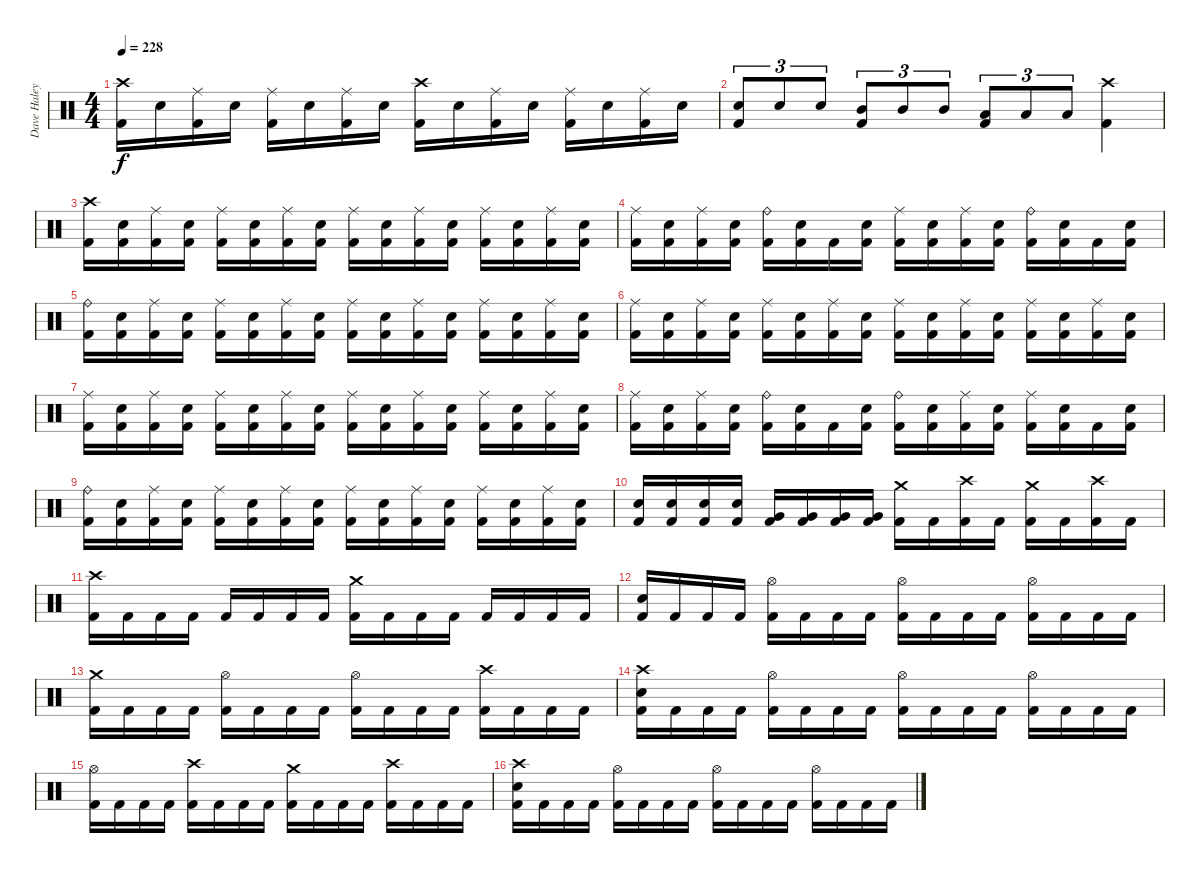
\track ("Dave Haley" "Dave Haley") {instrument percussion}
\staff {score}
\articulation defaults
\ts (4 4)
\tempo 228
\clef neutral
\ks c
("Crash high (hit)" "Kick (hit) 2").16{dy f} "Snare (hit) 2".16 ("Ride (middle)" "Kick (hit) 2").16 "Snare (hit) 2".16 ("Ride (middle)" "Kick (hit) 2").16 "Snare (hit) 2".16 ("Ride (middle)" "Kick (hit) 2").16 "Snare (hit) 2".16 ("Crash high (hit)" "Kick (hit) 2").16 "Snare (hit) 2".16 ("Ride (middle)" "Kick (hit) 2").16 "Snare (hit) 2".16 ("Ride (middle)" "Kick (hit) 2").16 "Snare (hit) 2".16 ("Ride (middle)" "Kick (hit) 2").16 "Snare (hit) 2".16 |
("Snare (hit) 2" "Kick (hit) 2").8{tu (3 2)} "Snare (hit) 2".8{tu (3 2)} "Snare (hit) 2".8{tu (3 2)} ("Mid Tom (hit)" "Kick (hit) 2").8{tu (3 2)} "Mid Tom (hit)".8{tu (3 2)} "Mid Tom (hit)".8{tu (3 2)} ("Low Tom (hit)" "Kick (hit) 2").8{tu (3 2)} "Low Tom (hit)".8{tu (3 2)} "Low Tom (hit)".8{tu (3 2)} ("Crash high (hit)" "Kick (hit) 2").4 |
("Crash high (hit)" "Kick (hit) 2").16 ("Snare (hit) 2" "Kick (hit) 2").16 ("Ride (middle)" "Kick (hit) 2").16 ("Snare (hit) 2" "Kick (hit) 2").16 ("Ride (middle)" "Kick (hit) 2").16 ("Snare (hit) 2" "Kick (hit) 2").16 ("Ride (middle)" "Kick (hit) 2").16 ("Snare (hit) 2" "Kick (hit) 2").16 ("Ride (middle)" "Kick (hit) 2").16 ("Snare (hit) 2" "Kick (hit) 2").16 ("Ride (middle)" "Kick (hit) 2").16 ("Snare (hit) 2" "Kick (hit) 2").16 ("Ride (middle)" "Kick (hit) 2").16 ("Snare (hit) 2" "Kick (hit) 2").16 ("Ride (middle)" "Kick (hit) 2").16 ("Snare (hit) 2" "Kick (hit) 2").16 |
("Ride (middle)" "Kick (hit) 2").16 ("Snare (hit) 2" "Kick (hit) 2").16 ("Ride (middle)" "Kick (hit) 2").16 ("Snare (hit) 2" "Kick (hit) 2").16 ("Ride (bell)" "Kick (hit) 2").16 ("Snare (hit) 2" "Kick (hit) 2").16 "Kick (hit) 2".16 ("Snare (hit) 2" "Kick (hit) 2").16 ("Ride (middle)" "Kick (hit) 2").16 ("Snare (hit) 2" "Kick (hit) 2").16 ("Ride (middle)" "Kick (hit) 2").16 ("Snare (hit) 2" "Kick (hit) 2").16 ("Ride (bell)" "Kick (hit) 2").16 ("Snare (hit) 2" "Kick (hit) 2").16 "Kick (hit) 2".16 ("Snare (hit) 2" "Kick (hit) 2").16 |
("Ride (bell)" "Kick (hit) 2").16 ("Snare (hit) 2" "Kick (hit) 2").16 ("Ride (middle)" "Kick (hit) 2").16 ("Snare (hit) 2" "Kick (hit) 2").16 ("Ride (middle)" "Kick (hit) 2").16 ("Snare (hit) 2" "Kick (hit) 2").16 ("Ride (middle)" "Kick (hit) 2").16 ("Snare (hit) 2" "Kick (hit) 2").16 ("Ride (middle)" "Kick (hit) 2").16 ("Snare (hit) 2" "Kick (hit) 2").16 ("Ride (middle)" "Kick (hit) 2").16 ("Snare (hit) 2" "Kick (hit) 2").16 ("Ride (middle)" "Kick (hit) 2").16 ("Snare (hit) 2" "Kick (hit) 2").16 ("Ride (middle)" "Kick (hit) 2").16 ("Snare (hit) 2" "Kick (hit) 2").16 |
("Ride (middle)" "Kick (hit) 2").16 ("Snare (hit) 2" "Kick (hit) 2").16 ("Ride (middle)" "Kick (hit) 2").16 ("Snare (hit) 2" "Kick (hit) 2").16 ("Ride (middle)" "Kick (hit) 2").16 ("Snare (hit) 2" "Kick (hit) 2").16 ("Ride (middle)" "Kick (hit) 2").16 ("Snare (hit) 2" "Kick (hit) 2").16 ("Ride (middle)" "Kick (hit) 2").16 ("Snare (hit) 2" "Kick (hit) 2").16 ("Ride (middle)" "Kick (hit) 2").16 ("Snare (hit) 2" "Kick (hit) 2").16 ("Ride (middle)" "Kick (hit) 2").16 ("Snare (hit) 2" "Kick (hit) 2").16 ("Ride (middle)" "Kick (hit) 2").16 ("Snare (hit) 2" "Kick (hit) 2").16 |
("Ride (middle)" "Kick (hit) 2").16 ("Snare (hit) 2" "Kick (hit) 2").16 ("Ride (middle)" "Kick (hit) 2").16 ("Snare (hit) 2" "Kick (hit) 2").16 ("Ride (middle)" "Kick (hit) 2").16 ("Snare (hit) 2" "Kick (hit) 2").16 ("Ride (middle)" "Kick (hit) 2").16 ("Snare (hit) 2" "Kick (hit) 2").16 ("Ride (middle)" "Kick (hit) 2").16 ("Snare (hit) 2" "Kick (hit) 2").16 ("Ride (middle)" "Kick (hit) 2").16 ("Snare (hit) 2" "Kick (hit) 2").16 ("Ride (middle)" "Kick (hit) 2").16 ("Snare (hit) 2" "Kick (hit) 2").16 ("Ride (middle)" "Kick (hit) 2").16 ("Snare (hit) 2" "Kick (hit) 2").16 |
("Ride (middle)" "Kick (hit) 2").16 ("Snare (hit) 2" "Kick (hit) 2").16 ("Ride (middle)" "Kick (hit) 2").16 ("Snare (hit) 2" "Kick (hit) 2").16 ("Ride (bell)" "Kick (hit) 2").16 ("Snare (hit) 2" "Kick (hit) 2").16 "Kick (hit) 2".16 ("Snare (hit) 2" "Kick (hit) 2").16 ("Ride (bell)" "Kick (hit) 2").16 ("Snare (hit) 2" "Kick (hit) 2").16 ("Ride (middle)" "Kick (hit) 2").16 ("Snare (hit) 2" "Kick (hit) 2").16 ("Ride (middle)" "Kick (hit) 2").16 ("Snare (hit) 2" "Kick (hit) 2").16 "Kick (hit) 2".16 ("Snare (hit) 2" "Kick (hit) 2").16 |
("Ride (bell)" "Kick (hit) 2").16 ("Snare (hit) 2" "Kick (hit) 2").16 ("Ride (middle)" "Kick (hit) 2").16 ("Snare (hit) 2" "Kick (hit) 2").16 ("Ride (middle)" "Kick (hit) 2").16 ("Snare (hit) 2" "Kick (hit) 2").16 ("Ride (middle)" "Kick (hit) 2").16 ("Snare (hit) 2" "Kick (hit) 2").16 ("Ride (middle)" "Kick (hit) 2").16 ("Snare (hit) 2" "Kick (hit) 2").16 ("Ride (middle)" "Kick (hit) 2").16 ("Snare (hit) 2" "Kick (hit) 2").16 ("Ride (middle)" "Kick (hit) 2").16 ("Snare (hit) 2" "Kick (hit) 2").16 ("Ride (middle)" "Kick (hit) 2").16 ("Snare (hit) 2" "Kick (hit) 2").16 |
("Snare (hit) 2" "Kick (hit) 2").16 ("Snare (hit) 2" "Kick (hit) 2").16 ("Snare (hit) 2" "Kick (hit) 2").16 ("Snare (hit) 2" "Kick (hit) 2").16 ("Very Low Tom (hit)" "Kick (hit) 2").16 ("Very Low Tom (hit)" "Kick (hit) 2").16 ("Very Low Tom (hit)" "Kick (hit) 2").16 ("Very Low Tom (hit)" "Kick (hit) 2").16 ("Crash medium (hit)" "Kick (hit) 2").16 "Kick (hit) 2".16 ("Crash high (hit)" "Kick (hit) 2").16 "Kick (hit) 2".16 ("Crash medium (hit)" "Kick (hit) 2").16 "Kick (hit) 2".16 ("Crash high (hit)" "Kick (hit) 2").16 "Kick (hit) 2".16 |
("Crash high (hit)" "Kick (hit) 2").16 "Kick (hit) 2".16 "Kick (hit) 2".16 "Kick (hit) 2".16 "Kick (hit) 2".16 "Kick (hit) 2".16 "Kick (hit) 2".16 "Kick (hit) 2".16 ("Crash medium (hit)" "Kick (hit) 2").16 "Kick (hit) 2".16 "Kick (hit) 2".16 "Kick (hit) 2".16 "Kick (hit) 2".16 "Kick (hit) 2".16 "Kick (hit) 2".16 "Kick (hit) 2".16 |
("Snare (hit) 2" "Kick (hit) 2").16 "Kick (hit) 2".16 "Kick (hit) 2".16 "Kick (hit) 2".16 ("Hi-Hat (open)" "Kick (hit) 2").16 "Kick (hit) 2".16 "Kick (hit) 2".16 "Kick (hit) 2".16 ("Hi-Hat (open)" "Kick (hit) 2").16 "Kick (hit) 2".16 "Kick (hit) 2".16 "Kick (hit) 2".16 ("Hi-Hat (open)" "Kick (hit) 2").16 "Kick (hit) 2".16 "Kick (hit) 2".16 "Kick (hit) 2".16 |
("Crash medium (hit)" "Kick (hit) 2").16 "Kick (hit) 2".16 "Kick (hit) 2".16 "Kick (hit) 2".16 ("Hi-Hat (open)" "Kick (hit) 2").16 "Kick (hit) 2".16 "Kick (hit) 2".16 "Kick (hit) 2".16 ("Hi-Hat (open)" "Kick (hit) 2").16 "Kick (hit) 2".16 "Kick (hit) 2".16 "Kick (hit) 2".16 ("Crash high (hit)" "Kick (hit) 2").16 "Kick (hit) 2".16 "Kick (hit) 2".16 "Kick (hit) 2".16 |
("Crash high (hit)" "Snare (hit) 2" "Kick (hit) 2").16 "Kick (hit) 2".16 "Kick (hit) 2".16 "Kick (hit) 2".16 ("Hi-Hat (open)" "Kick (hit) 2").16 "Kick (hit) 2".16 "Kick (hit) 2".16 "Kick (hit) 2".16 ("Hi-Hat (open)" "Kick (hit) 2").16 "Kick (hit) 2".16 "Kick (hit) 2".16 "Kick (hit) 2".16 ("Hi-Hat (open)" "Kick (hit) 2").16 "Kick (hit) 2".16 "Kick (hit) 2".16 "Kick (hit) 2".16 |
("Hi-Hat (open)" "Kick (hit) 2").16 "Kick (hit) 2".16 "Kick (hit) 2".16 "Kick (hit) 2".16 ("Crash high (hit)" "Kick (hit) 2").16 "Kick (hit) 2".16 "Kick (hit) 2".16 "Kick (hit) 2".16 ("Crash medium (hit)" "Kick (hit) 2").16 "Kick (hit) 2".16 "Kick (hit) 2".16 "Kick (hit) 2".16 ("Crash high (hit)" "Kick (hit) 2").16 "Kick (hit) 2".16 "Kick (hit) 2".16 "Kick (hit) 2".16 |
("Crash high (hit)" "Snare (hit) 2" "Kick (hit) 2").16 "Kick (hit) 2".16 "Kick (hit) 2".16 "Kick (hit) 2".16 ("Hi-Hat (open)" "Kick (hit) 2").16 "Kick (hit) 2".16 "Kick (hit) 2".16 "Kick (hit) 2".16 ("Hi-Hat (open)" "Kick (hit) 2").16 "Kick (hit) 2".16 "Kick (hit) 2".16 "Kick (hit) 2".16 ("Hi-Hat (open)" "Kick (hit) 2").16 "Kick (hit) 2".16 "Kick (hit) 2".16 "Kick (hit) 2".16
